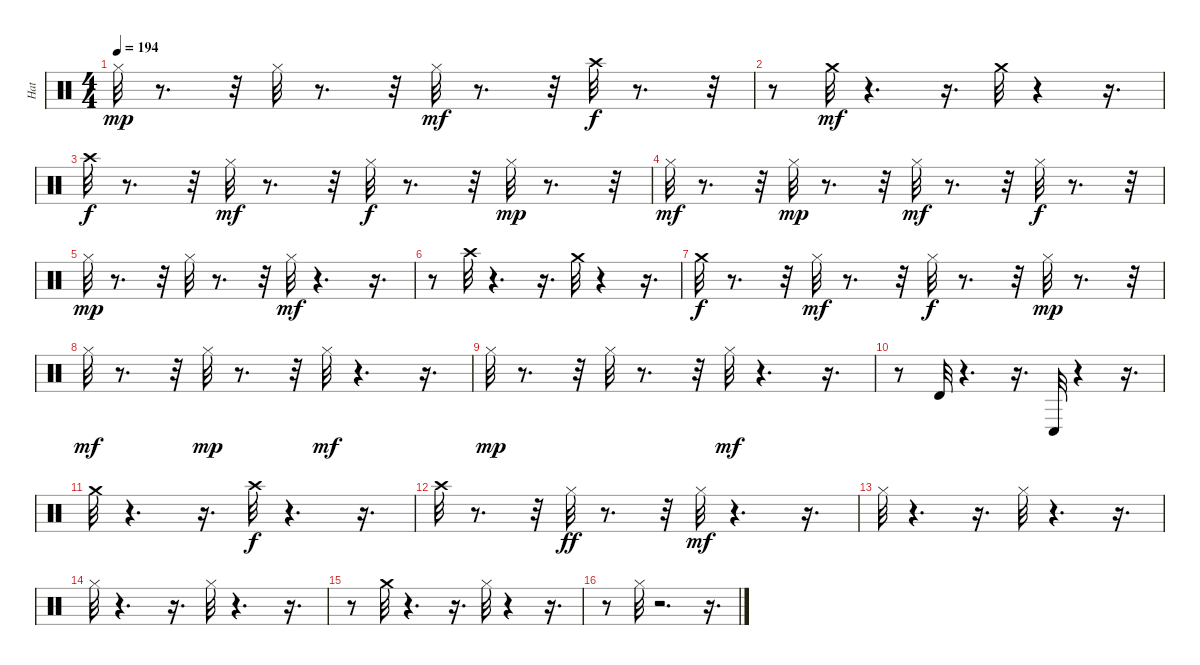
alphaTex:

\track ("Hat" "Hat") {instrument percussion}
\staff {score}
\articulation defaults
\ts (4 4)
\tempo 194
\clef neutral
\ks c "Hi-Hat (closed)".32{dy mp}
r.8{d} r.32 "Hi-Hat (closed)".32 r.8{d} r.32 "Hi-Hat (closed)".32{dy mf} r.8{d} r.32 "Crash high (hit)".32{dy f} r.8{d} r.32 |
r.8 "Crash medium (hit)".32{dy mf} r.4{d} r.16{d} "Crash medium (hit)".32 r.4 r.16{d} |
"Crash high (hit)".32{dy f} r.8{d} r.32 "Hi-Hat (closed)".32{dy mf} r.8{d} r.32 "Hi-Hat (closed)".32{dy f} r.8{d} r.32 "Hi-Hat (closed)".32{dy mp} r.8{d} r.32 |
"Hi-Hat (closed)".32{dy mf} r.8{d} r.32 "Hi-Hat (closed)".32{dy mp} r.8{d} r.32 "Hi-Hat (closed)".32{dy mf} r.8{d} r.32 "Hi-Hat (closed)".32{dy f} r.8{d} r.32 |
"Hi-Hat (closed)".32{dy mp} r.8{d} r.32 "Hi-Hat (closed)".32 r.8{d} r.32 "Hi-Hat (closed)".32{dy mf} r.4{d} r.16{d} |
r.8 "Crash high (hit)".32 r.4{d} r.16{d} "Crash medium (hit)".32 r.4 r.16{d} |
"Crash medium (hit)".32{dy f} r.8{d} r.32 "Hi-Hat (closed)".32{dy mf} r.8{d} r.32 "Hi-Hat (closed)".32{dy f} r.8{d} r.32 "Hi-Hat (closed)".32{dy mp} r.8{d} r.32 |
"Hi-Hat (closed)".32{dy mf} r.8{d} r.32 "Hi-Hat (closed)".32{dy mp} r.8{d} r.32 "Hi-Hat (closed)".32{dy mf} r.4{d} r.16{d} |
"Hi-Hat (closed)".32{dy mp} r.8{d} r.32 "Hi-Hat (closed)".32 r.8{d} r.32 "Hi-Hat (closed)".32{dy mf} r.4{d} r.16{d} |
r.8 "Timbale high (hit)".32 r.4{d} r.16{d} "Conga low (hit)".32 r.4 r.16{d} |
"Crash medium (hit)".32 r.4{d} r.16{d} "Crash high (hit)".32{dy f} r.4{d} r.16{d} |
"Crash high (hit)".32 r.8{d} r.32 "Hi-Hat (closed)".32{dy ff} r.8{d} r.32 "Hi-Hat (closed)".32{dy mf} r.4{d} r.16{d} |
"Hi-Hat (closed)".32 r.4{d} r.16{d} "Hi-Hat (closed)".32 r.4{d} r.16{d} |
"Hi-Hat (closed)".32 r.4{d} r.16{d} "Hi-Hat (closed)".32 r.4{d} r.16{d} |
r.8 "Crash medium (hit)".32 r.4{d} r.16{d} "Hi-Hat (closed)".32 r.4 r.16{d} |
r.8 "Hi-Hat (closed)".32 r.2{d} r.16{d}
